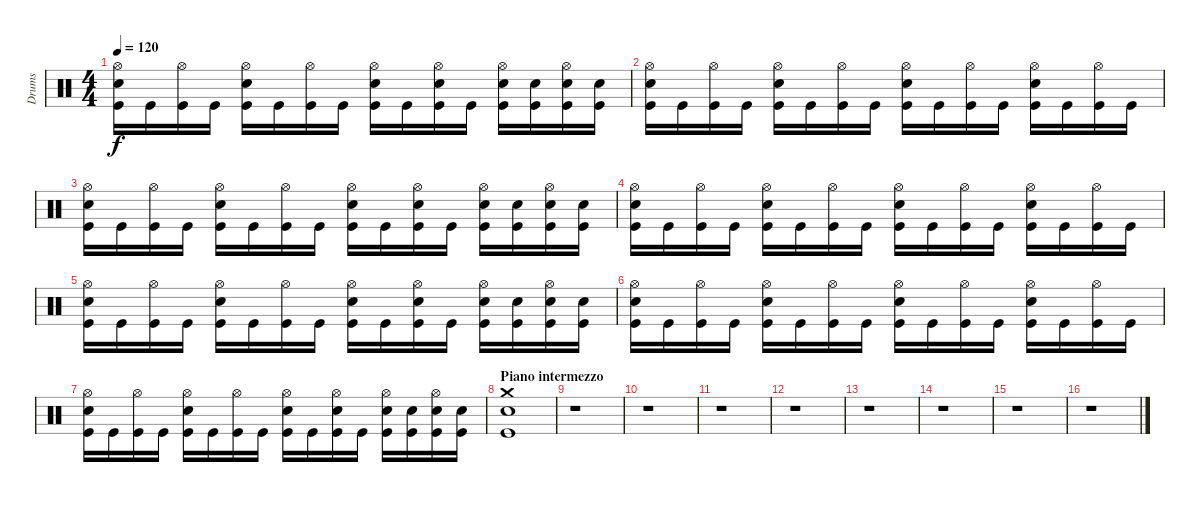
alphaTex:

\track ("Drums" "Drums") {instrument percussion}
\staff {score}
\articulation defaults
\ts (4 4)
\tempo 120
\clef neutral
\ks c
("Hi-Hat (open)" "Snare (hit) 2" "Kick (hit)").16{dy f} "Kick (hit)".16 ("Hi-Hat (open)" "Kick (hit)").16 "Kick (hit)".16 ("Hi-Hat (open)" "Snare (hit) 2" "Kick (hit)").16 "Kick (hit)".16 ("Hi-Hat (open)" "Kick (hit)").16 "Kick (hit)".16 ("Hi-Hat (open)" "Snare (hit) 2" "Kick (hit)").16 "Kick (hit)".16 ("Hi-Hat (open)" "Snare (hit) 2" "Kick (hit)").16 "Kick (hit)".16 ("Hi-Hat (open)" "Snare (hit) 2" "Kick (hit)").16 ("Snare (hit) 2" "Kick (hit)").16 ("Hi-Hat (open)" "Snare (hit) 2" "Kick (hit)").16 ("Snare (hit) 2" "Kick (hit)").16 |
("Hi-Hat (open)" "Snare (hit) 2" "Kick (hit)").16 "Kick (hit)".16 ("Hi-Hat (open)" "Kick (hit)").16 "Kick (hit)".16 ("Hi-Hat (open)" "Snare (hit) 2" "Kick (hit)").16 "Kick (hit)".16 ("Hi-Hat (open)" "Kick (hit)").16 "Kick (hit)".16 ("Hi-Hat (open)" "Snare (hit) 2" "Kick (hit)").16 "Kick (hit)".16 ("Hi-Hat (open)" "Kick (hit)").16 "Kick (hit)".16 ("Hi-Hat (open)" "Snare (hit) 2" "Kick (hit)").16 "Kick (hit)".16 ("Hi-Hat (open)" "Kick (hit)").16 "Kick (hit)".16 |
("Hi-Hat (open)" "Snare (hit) 2" "Kick (hit)").16 "Kick (hit)".16 ("Hi-Hat (open)" "Kick (hit)").16 "Kick (hit)".16 ("Hi-Hat (open)" "Snare (hit) 2" "Kick (hit)").16 "Kick (hit)".16 ("Hi-Hat (open)" "Kick (hit)").16 "Kick (hit)".16 ("Hi-Hat (open)" "Snare (hit) 2" "Kick (hit)").16 "Kick (hit)".16 ("Hi-Hat (open)" "Snare (hit) 2" "Kick (hit)").16 "Kick (hit)".16 ("Hi-Hat (open)" "Snare (hit) 2" "Kick (hit)").16 ("Snare (hit) 2" "Kick (hit)").16 ("Hi-Hat (open)" "Snare (hit) 2" "Kick (hit)").16 ("Snare (hit) 2" "Kick (hit)").16 |
("Hi-Hat (open)" "Snare (hit) 2" "Kick (hit)").16 "Kick (hit)".16 ("Hi-Hat (open)" "Kick (hit)").16 "Kick (hit)".16 ("Hi-Hat (open)" "Snare (hit) 2" "Kick (hit)").16 "Kick (hit)".16 ("Hi-Hat (open)" "Kick (hit)").16 "Kick (hit)".16 ("Hi-Hat (open)" "Snare (hit) 2" "Kick (hit)").16 "Kick (hit)".16 ("Hi-Hat (open)" "Kick (hit)").16 "Kick (hit)".16 ("Hi-Hat (open)" "Snare (hit) 2" "Kick (hit)").16 "Kick (hit)".16 ("Hi-Hat (open)" "Kick (hit)").16 "Kick (hit)".16 |
("Hi-Hat (open)" "Snare (hit) 2" "Kick (hit)").16 "Kick (hit)".16 ("Hi-Hat (open)" "Kick (hit)").16 "Kick (hit)".16 ("Hi-Hat (open)" "Snare (hit) 2" "Kick (hit)").16 "Kick (hit)".16 ("Hi-Hat (open)" "Kick (hit)").16 "Kick (hit)".16 ("Hi-Hat (open)" "Snare (hit) 2" "Kick (hit)").16 "Kick (hit)".16 ("Hi-Hat (open)" "Snare (hit) 2" "Kick (hit)").16 "Kick (hit)".16 ("Hi-Hat (open)" "Snare (hit) 2" "Kick (hit)").16 ("Snare (hit) 2" "Kick (hit)").16 ("Hi-Hat (open)" "Snare (hit) 2" "Kick (hit)").16 ("Snare (hit) 2" "Kick (hit)").16 |
("Hi-Hat (open)" "Snare (hit) 2" "Kick (hit)").16 "Kick (hit)".16 ("Hi-Hat (open)" "Kick (hit)").16 "Kick (hit)".16 ("Hi-Hat (open)" "Snare (hit) 2" "Kick (hit)").16 "Kick (hit)".16 ("Hi-Hat (open)" "Kick (hit)").16 "Kick (hit)".16 ("Hi-Hat (open)" "Snare (hit) 2" "Kick (hit)").16 "Kick (hit)".16 ("Hi-Hat (open)" "Kick (hit)").16 "Kick (hit)".16 ("Hi-Hat (open)" "Snare (hit) 2" "Kick (hit)").16 "Kick (hit)".16 ("Hi-Hat (open)" "Kick (hit)").16 "Kick (hit)".16 |
("Hi-Hat (open)" "Snare (hit) 2" "Kick (hit)").16 "Kick (hit)".16 ("Hi-Hat (open)" "Kick (hit)").16 "Kick (hit)".16 ("Hi-Hat (open)" "Snare (hit) 2" "Kick (hit)").16 "Kick (hit)".16 ("Hi-Hat (open)" "Kick (hit)").16 "Kick (hit)".16 ("Hi-Hat (open)" "Snare (hit) 2" "Kick (hit)").16 "Kick (hit)".16 ("Hi-Hat (open)" "Snare (hit) 2" "Kick (hit)").16 "Kick (hit)".16 ("Hi-Hat (open)" "Snare (hit) 2" "Kick (hit)").16 ("Snare (hit) 2" "Kick (hit)").16 ("Hi-Hat (open)" "Snare (hit) 2" "Kick (hit)").16 ("Snare (hit) 2" "Kick (hit)").16 |
\section ("" "Piano intermezzo")
("Crash medium (hit)" "Snare (hit) 2" "Kick (hit)").1 |
r.1 |
r.1 |
r.1 |
r.1 |
r.1 |
r.1 |
r.1 |
r.1
